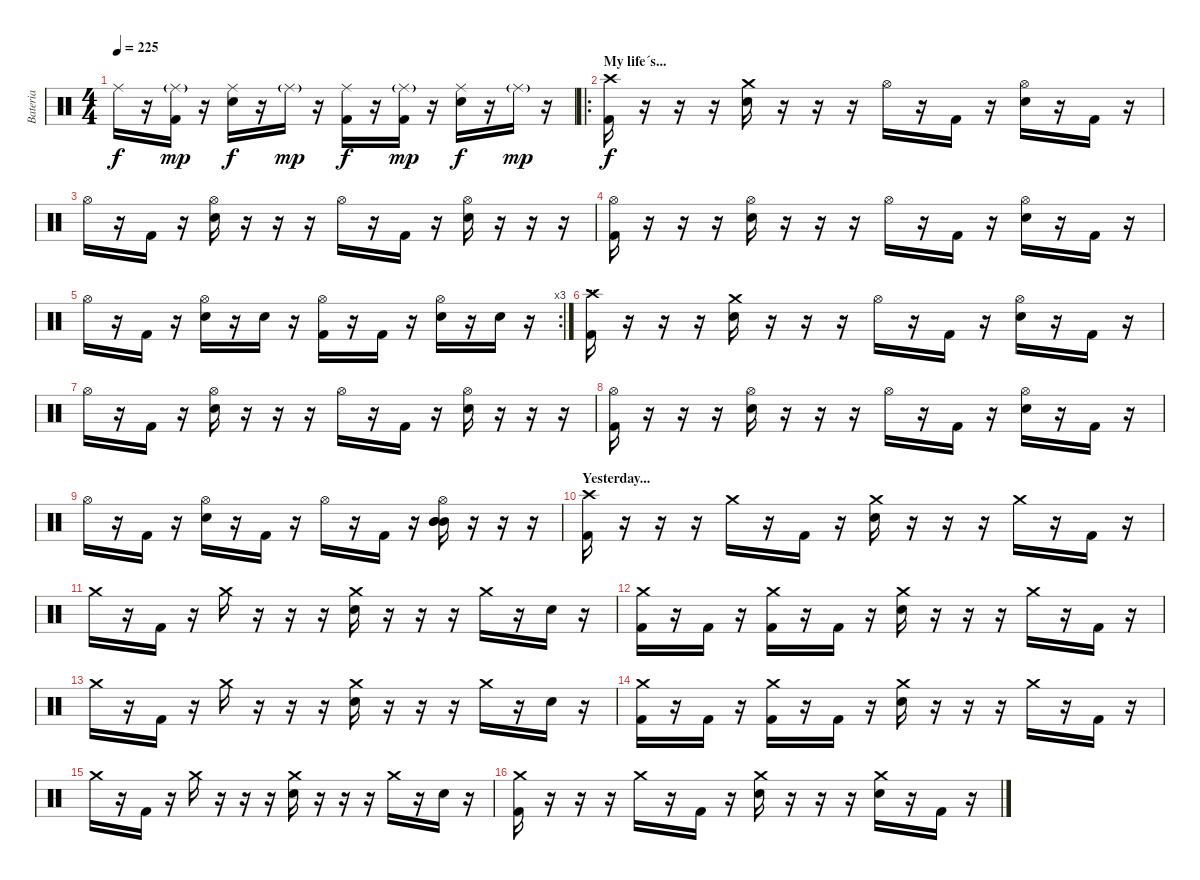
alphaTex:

\track ("Bateria" "Bateria") {instrument percussion}
\staff {score}
\articulation defaults
\ts (4 4)
\tempo 225
\clef neutral
\ks c "Ride (middle)".16{dy f}
r.16 ("Ride (middle)"{g} "Kick (hit) 2").16{dy mp} r.16 ("Ride (middle)" "Electric Snare (hit)").16{dy f} r.16 "Ride (middle)"{g}.16{dy mp} r.16 ("Ride (middle)" "Kick (hit) 2").16{dy f} r.16 ("Ride (middle)"{g} "Kick (hit) 2").16{dy mp} r.16 ("Ride (middle)" "Electric Snare (hit)").16{dy f} r.16 "Ride (middle)"{g}.16{dy mp} r.16 |
\ro
\section ("" "My life´s...")
("Crash high (hit)" "Kick (hit) 2").16{dy f} r.16 r.16 r.16 ("Crash medium (hit)" "Electric Snare (hit)").16 r.16 r.16 r.16 "Hi-Hat (open)".16 r.16 "Kick (hit) 2".16 r.16 ("Hi-Hat (open)" "Electric Snare (hit)").16 r.16 "Kick (hit) 2".16 r.16 |
"Hi-Hat (open)".16 r.16 "Kick (hit) 2".16 r.16 ("Hi-Hat (open)" "Electric Snare (hit)").16 r.16 r.16 r.16 "Hi-Hat (open)".16 r.16 "Kick (hit) 2".16 r.16 ("Hi-Hat (open)" "Electric Snare (hit)").16 r.16 r.16 r.16 |
("Hi-Hat (open)" "Kick (hit) 2").16 r.16 r.16 r.16 ("Hi-Hat (open)" "Electric Snare (hit)").16 r.16 r.16 r.16 "Hi-Hat (open)".16 r.16 "Kick (hit) 2".16 r.16 ("Hi-Hat (open)" "Electric Snare (hit)").16 r.16 "Kick (hit) 2".16 r.16 |
\rc 3 "Hi-Hat (open)".16
r.16 "Kick (hit) 2".16 r.16 ("Hi-Hat (open)" "Electric Snare (hit)").16 r.16 "Electric Snare (hit)".16 r.16 ("Hi-Hat (open)" "Kick (hit) 2").16 r.16 "Kick (hit) 2".16 r.16 ("Hi-Hat (open)" "Electric Snare (hit)").16 r.16 "Electric Snare (hit)".16 r.16 |
\section ("" "...")
("Crash high (hit)" "Kick (hit) 2").16 r.16 r.16 r.16 ("Crash medium (hit)" "Electric Snare (hit)").16 r.16 r.16 r.16 "Hi-Hat (open)".16 r.16 "Kick (hit) 2".16 r.16 ("Hi-Hat (open)" "Electric Snare (hit)").16 r.16 "Kick (hit) 2".16 r.16 |
"Hi-Hat (open)".16 r.16 "Kick (hit) 2".16 r.16 ("Hi-Hat (open)" "Electric Snare (hit)").16 r.16 r.16 r.16 "Hi-Hat (open)".16 r.16 "Kick (hit) 2".16 r.16 ("Hi-Hat (open)" "Electric Snare (hit)").16 r.16 r.16 r.16 |
("Hi-Hat (open)" "Kick (hit) 2").16 r.16 r.16 r.16 ("Hi-Hat (open)" "Electric Snare (hit)").16 r.16 r.16 r.16 "Hi-Hat (open)".16 r.16 "Kick (hit) 2".16 r.16 ("Hi-Hat (open)" "Electric Snare (hit)").16 r.16 "Kick (hit) 2".16 r.16 |
"Hi-Hat (open)".16 r.16 "Kick (hit) 2".16 r.16 ("Hi-Hat (open)" "Electric Snare (hit)").16 r.16 "Kick (hit) 2".16 r.16 "Hi-Hat (open)".16 r.16 "Kick (hit) 2".16 r.16 ("Hi-Hat (open)" "Mid Tom (hit)" "Mid Tom (hit)" "Mid Tom (hit)").16 r.16 r.16 r.16 |
\section ("" "Yesterday...")
("Crash high (hit)" "Kick (hit) 2").16 r.16 r.16 r.16 "Crash medium (hit)".16 r.16 "Kick (hit) 2".16 r.16 ("Crash medium (hit)" "Electric Snare (hit)").16 r.16 r.16 r.16 "Crash medium (hit)".16 r.16 "Kick (hit) 2".16 r.16 |
"Crash medium (hit)".16 r.16 "Kick (hit) 2".16 r.16 "Crash medium (hit)".16 r.16 r.16 r.16 ("Crash medium (hit)" "Electric Snare (hit)").16 r.16 r.16 r.16 "Crash medium (hit)".16 r.16 "Electric Snare (hit)".16 r.16 |
("Crash medium (hit)" "Kick (hit) 2").16 r.16 "Kick (hit) 2".16 r.16 ("Crash medium (hit)" "Kick (hit) 2").16 r.16 "Kick (hit) 2".16 r.16 ("Crash medium (hit)" "Electric Snare (hit)").16 r.16 r.16 r.16 "Crash medium (hit)".16 r.16 "Kick (hit) 2".16 r.16 |
"Crash medium (hit)".16 r.16 "Kick (hit) 2".16 r.16 "Crash medium (hit)".16 r.16 r.16 r.16 ("Crash medium (hit)" "Electric Snare (hit)").16 r.16 r.16 r.16 "Crash medium (hit)".16 r.16 "Electric Snare (hit)".16 r.16 |
("Crash medium (hit)" "Kick (hit) 2").16 r.16 "Kick (hit) 2".16 r.16 ("Crash medium (hit)" "Kick (hit) 2").16 r.16 "Kick (hit) 2".16 r.16 ("Crash medium (hit)" "Electric Snare (hit)").16 r.16 r.16 r.16 "Crash medium (hit)".16 r.16 "Kick (hit) 2".16 r.16 |
"Crash medium (hit)".16 r.16 "Kick (hit) 2".16 r.16 "Crash medium (hit)".16 r.16 r.16 r.16 ("Crash medium (hit)" "Electric Snare (hit)").16 r.16 r.16 r.16 "Crash medium (hit)".16 r.16 "Electric Snare (hit)".16 r.16 |
("Crash medium (hit)" "Kick (hit) 2").16 r.16 r.16 r.16 "Crash medium (hit)".16 r.16 "Kick (hit) 2".16 r.16 ("Crash medium (hit)" "Electric Snare (hit)").16 r.16 r.16 r.16 ("Crash medium (hit)" "Electric Snare (hit)").16 r.16 "Kick (hit) 2".16 r.16
